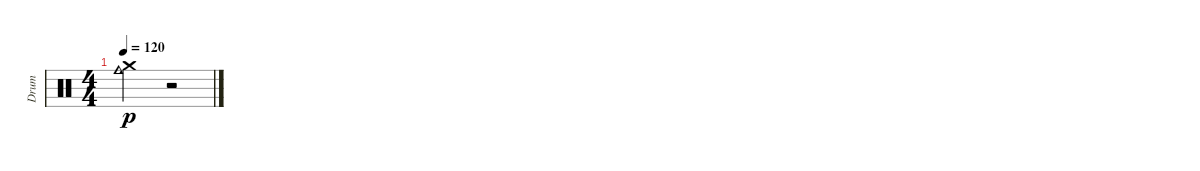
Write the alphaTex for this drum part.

\track ("Drum" "Drum") {instrument percussion}
\staff {score}
\articulation defaults
\ts (4 4)
\tempo 120
\clef neutral
\ks c
("Crash medium (hit)" "Cowbell medium (hit)").2{dy p} r.2
